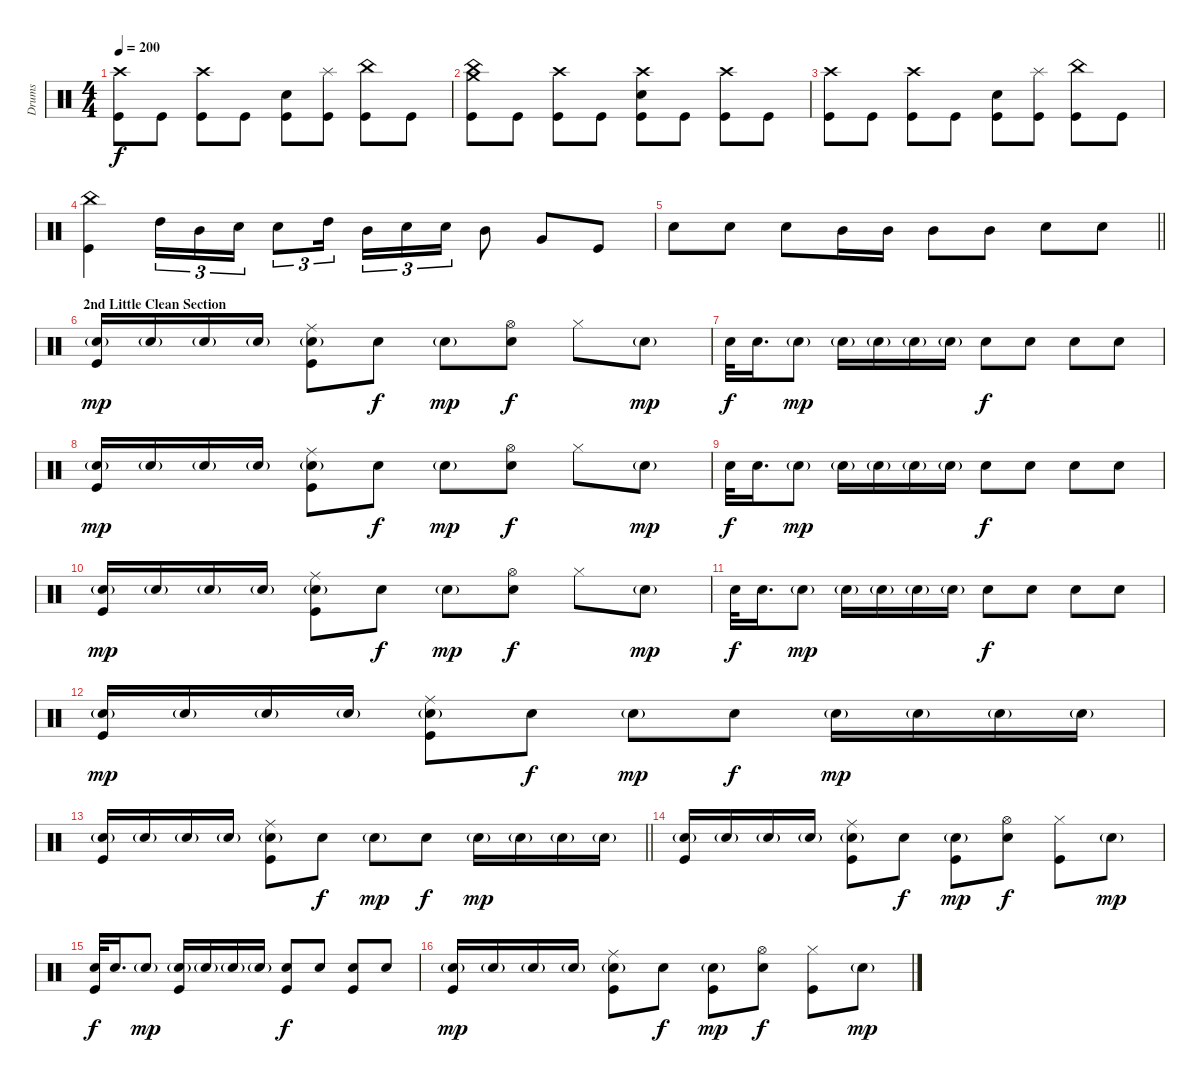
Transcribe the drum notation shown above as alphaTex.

\track ("Drums" "Drums") {instrument percussion}
\staff {score}
\articulation defaults
\ts (4 4)
\tempo 200
\clef neutral
\ks c
("Crash high (hit)" "Kick (hit)").8{dy f} "Kick (hit)".8 ("Crash high (hit)" "Kick (hit)").8 "Kick (hit)".8 ("Electric Snare (hit)" "Kick (hit)").8 ("Splash (hit)" "Kick (hit)").8 ("China (hit)" "Kick (hit)").8 "Kick (hit)".8 |
("Crash medium (hit)" "China (hit)" "Kick (hit)").8 "Kick (hit)".8 ("Crash high (hit)" "Kick (hit)").8 "Kick (hit)".8 ("Crash high (hit)" "Electric Snare (hit)" "Kick (hit)").8 "Kick (hit)".8 ("Crash high (hit)" "Kick (hit)").8 "Kick (hit)".8 |
("Crash high (hit)" "Kick (hit)").8 "Kick (hit)".8 ("Crash high (hit)" "Kick (hit)").8 "Kick (hit)".8 ("Electric Snare (hit)" "Kick (hit)").8 ("Splash (hit)" "Kick (hit)").8 ("China (hit)" "Kick (hit)").8 "Kick (hit)".8 |
("China (hit)" "Kick (hit)").4 "High Tom (hit)".16{tu (3 2)} "Mid Tom (hit)".16{tu (3 2)} "Electric Snare (hit)".16{tu (3 2)} "Electric Snare (hit)".8{tu (3 2)} "High Tom (hit)".16{tu (3 2)} "Mid Tom (hit)".16{tu (3 2)} "Electric Snare (hit)".16{tu (3 2)} "Electric Snare (hit)".16{tu (3 2)} "Mid Tom (hit)".8 "Very Low Tom (hit)".8 "Kick (hit)".8 |
\barLineRight lightlight "Electric Snare (hit)".8 "Electric Snare (hit)".8 "Electric Snare (hit)".8 "Mid Tom (hit)".16 "Mid Tom (hit)".16 "Mid Tom (hit)".8 "Mid Tom (hit)".8 "Electric Snare (hit)".8 "Electric Snare (hit)".8
|
\section ("" "2nd Little Clean Section")
("Electric Snare (hit)"{g} "Kick (hit)").16{dy mp} "Electric Snare (hit)"{g}.16 "Electric Snare (hit)"{g}.16 "Electric Snare (hit)"{g}.16 ("Ride (middle)" "Electric Snare (hit)"{g} "Kick (hit)").8 "Electric Snare (hit)".8{dy f} "Electric Snare (hit)"{g}.8{dy mp} ("Hi-Hat (open)" "Electric Snare (hit)").8{dy f} "Hi-Hat (closed)".8 "Electric Snare (hit)"{g}.8{dy mp} |
"Electric Snare (hit)".32{dy f} "Electric Snare (hit)".16{d} "Electric Snare (hit)"{g}.8{dy mp} "Electric Snare (hit)"{g}.16 "Electric Snare (hit)"{g}.16 "Electric Snare (hit)"{g}.16 "Electric Snare (hit)"{g}.16 "Electric Snare (hit)".8{dy f} "Electric Snare (hit)".8 "Electric Snare (hit)".8 "Electric Snare (hit)".8 |
("Electric Snare (hit)"{g} "Kick (hit)").16{dy mp} "Electric Snare (hit)"{g}.16 "Electric Snare (hit)"{g}.16 "Electric Snare (hit)"{g}.16 ("Ride (middle)" "Electric Snare (hit)"{g} "Kick (hit)").8 "Electric Snare (hit)".8{dy f} "Electric Snare (hit)"{g}.8{dy mp} ("Hi-Hat (open)" "Electric Snare (hit)").8{dy f} "Hi-Hat (closed)".8 "Electric Snare (hit)"{g}.8{dy mp} |
"Electric Snare (hit)".32{dy f} "Electric Snare (hit)".16{d} "Electric Snare (hit)"{g}.8{dy mp} "Electric Snare (hit)"{g}.16 "Electric Snare (hit)"{g}.16 "Electric Snare (hit)"{g}.16 "Electric Snare (hit)"{g}.16 "Electric Snare (hit)".8{dy f} "Electric Snare (hit)".8 "Electric Snare (hit)".8 "Electric Snare (hit)".8 |
("Electric Snare (hit)"{g} "Kick (hit)").16{dy mp} "Electric Snare (hit)"{g}.16 "Electric Snare (hit)"{g}.16 "Electric Snare (hit)"{g}.16 ("Ride (middle)" "Electric Snare (hit)"{g} "Kick (hit)").8 "Electric Snare (hit)".8{dy f} "Electric Snare (hit)"{g}.8{dy mp} ("Hi-Hat (open)" "Electric Snare (hit)").8{dy f} "Hi-Hat (closed)".8 "Electric Snare (hit)"{g}.8{dy mp} |
"Electric Snare (hit)".32{dy f} "Electric Snare (hit)".16{d} "Electric Snare (hit)"{g}.8{dy mp} "Electric Snare (hit)"{g}.16 "Electric Snare (hit)"{g}.16 "Electric Snare (hit)"{g}.16 "Electric Snare (hit)"{g}.16 "Electric Snare (hit)".8{dy f} "Electric Snare (hit)".8 "Electric Snare (hit)".8 "Electric Snare (hit)".8 |
("Electric Snare (hit)"{g} "Kick (hit)").16{dy mp} "Electric Snare (hit)"{g}.16 "Electric Snare (hit)"{g}.16 "Electric Snare (hit)"{g}.16 ("Ride (middle)" "Electric Snare (hit)"{g} "Kick (hit)").8 "Electric Snare (hit)".8{dy f} "Electric Snare (hit)"{g}.8{dy mp} "Electric Snare (hit)".8{dy f} "Electric Snare (hit)"{g}.16{dy mp} "Electric Snare (hit)"{g}.16 "Electric Snare (hit)"{g}.16 "Electric Snare (hit)"{g}.16 |
\barLineRight lightlight
("Electric Snare (hit)"{g} "Kick (hit)").16 "Electric Snare (hit)"{g}.16 "Electric Snare (hit)"{g}.16 "Electric Snare (hit)"{g}.16 ("Ride (middle)" "Electric Snare (hit)"{g} "Kick (hit)").8 "Electric Snare (hit)".8{dy f} "Electric Snare (hit)"{g}.8{dy mp} "Electric Snare (hit)".8{dy f} "Electric Snare (hit)"{g}.16{dy mp} "Electric Snare (hit)"{g}.16 "Electric Snare (hit)"{g}.16 "Electric Snare (hit)"{g}.16 |
("Electric Snare (hit)"{g} "Kick (hit)").16 "Electric Snare (hit)"{g}.16 "Electric Snare (hit)"{g}.16 "Electric Snare (hit)"{g}.16 ("Ride (middle)" "Electric Snare (hit)"{g} "Kick (hit)").8 "Electric Snare (hit)".8{dy f} ("Electric Snare (hit)"{g} "Kick (hit)").8{dy mp} ("Hi-Hat (open)" "Electric Snare (hit)").8{dy f} ("Hi-Hat (closed)" "Kick (hit)").8 "Electric Snare (hit)"{g}.8{dy mp} |
("Electric Snare (hit)" "Kick (hit)").32{dy f} "Electric Snare (hit)".16{d} "Electric Snare (hit)"{g}.8{dy mp} ("Electric Snare (hit)"{g} "Kick (hit)").16 "Electric Snare (hit)"{g}.16 "Electric Snare (hit)"{g}.16 "Electric Snare (hit)"{g}.16 ("Electric Snare (hit)" "Kick (hit)").8{dy f} "Electric Snare (hit)".8 ("Electric Snare (hit)" "Kick (hit)").8 "Electric Snare (hit)".8 |
("Electric Snare (hit)"{g} "Kick (hit)").16{dy mp} "Electric Snare (hit)"{g}.16 "Electric Snare (hit)"{g}.16 "Electric Snare (hit)"{g}.16 ("Ride (middle)" "Electric Snare (hit)"{g} "Kick (hit)").8 "Electric Snare (hit)".8{dy f} ("Electric Snare (hit)"{g} "Kick (hit)").8{dy mp} ("Hi-Hat (open)" "Electric Snare (hit)").8{dy f} ("Hi-Hat (closed)" "Kick (hit)").8 "Electric Snare (hit)"{g}.8{dy mp}
